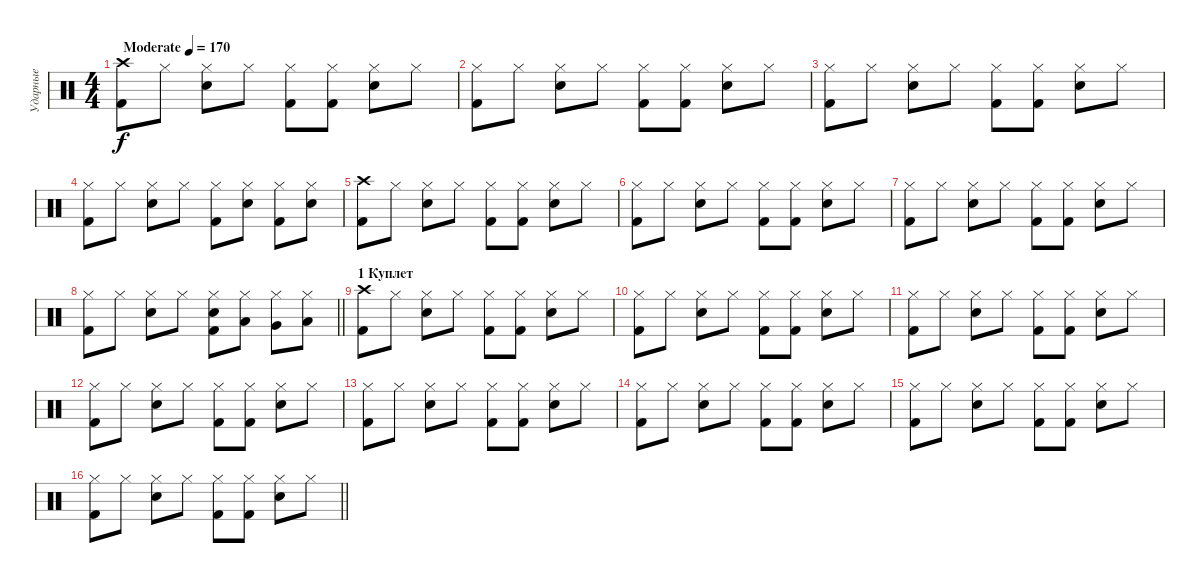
\track ("Ударные" "Ударные") {instrument percussion}
\staff {score}
\articulation defaults
\ts (4 4)
\tempo (170 "Moderate")
\clef neutral
\ks c
("Crash high (hit)" "Kick (hit) 2").8{dy f} "Hi-Hat (closed)".8 ("Hi-Hat (closed)" "Snare (hit) 2").8 "Hi-Hat (closed)".8 ("Hi-Hat (closed)" "Kick (hit) 2").8 ("Hi-Hat (closed)" "Kick (hit) 2").8 ("Hi-Hat (closed)" "Snare (hit) 2").8 "Hi-Hat (closed)".8 |
("Hi-Hat (closed)" "Kick (hit) 2").8 "Hi-Hat (closed)".8 ("Hi-Hat (closed)" "Snare (hit) 2").8 "Hi-Hat (closed)".8 ("Hi-Hat (closed)" "Kick (hit) 2").8 ("Hi-Hat (closed)" "Kick (hit) 2").8 ("Hi-Hat (closed)" "Snare (hit) 2").8 "Hi-Hat (closed)".8 |
("Hi-Hat (closed)" "Kick (hit) 2").8 "Hi-Hat (closed)".8 ("Hi-Hat (closed)" "Snare (hit) 2").8 "Hi-Hat (closed)".8 ("Hi-Hat (closed)" "Kick (hit) 2").8 ("Hi-Hat (closed)" "Kick (hit) 2").8 ("Hi-Hat (closed)" "Snare (hit) 2").8 "Hi-Hat (closed)".8 |
("Hi-Hat (closed)" "Kick (hit) 2").8 "Hi-Hat (closed)".8 ("Hi-Hat (closed)" "Snare (hit) 2").8 "Hi-Hat (closed)".8 ("Hi-Hat (closed)" "Kick (hit) 2").8 ("Hi-Hat (closed)" "Snare (hit) 2").8 ("Hi-Hat (closed)" "Kick (hit) 2").8 ("Hi-Hat (closed)" "Snare (hit) 2").8 |
("Crash high (hit)" "Kick (hit) 2").8 "Hi-Hat (closed)".8 ("Hi-Hat (closed)" "Snare (hit) 2").8 "Hi-Hat (closed)".8 ("Hi-Hat (closed)" "Kick (hit) 2").8 ("Hi-Hat (closed)" "Kick (hit) 2").8 ("Hi-Hat (closed)" "Snare (hit) 2").8 "Hi-Hat (closed)".8 |
("Hi-Hat (closed)" "Kick (hit) 2").8 "Hi-Hat (closed)".8 ("Hi-Hat (closed)" "Snare (hit) 2").8 "Hi-Hat (closed)".8 ("Hi-Hat (closed)" "Kick (hit) 2").8 ("Hi-Hat (closed)" "Kick (hit) 2").8 ("Hi-Hat (closed)" "Snare (hit) 2").8 "Hi-Hat (closed)".8 |
("Hi-Hat (closed)" "Kick (hit) 2").8 "Hi-Hat (closed)".8 ("Hi-Hat (closed)" "Snare (hit) 2").8 "Hi-Hat (closed)".8 ("Hi-Hat (closed)" "Kick (hit) 2").8 ("Hi-Hat (closed)" "Kick (hit) 2").8 ("Hi-Hat (closed)" "Snare (hit) 2").8 "Hi-Hat (closed)".8 |
\barLineRight lightlight
("Hi-Hat (closed)" "Kick (hit) 2").8 "Hi-Hat (closed)".8 ("Hi-Hat (closed)" "Snare (hit) 2").8 "Hi-Hat (closed)".8 ("Hi-Hat (closed)" "Snare (hit) 2" "Kick (hit) 2").8 ("Hi-Hat (closed)" "Low Tom (hit)").8 ("Hi-Hat (closed)" "Very Low Tom (hit)").8 ("Hi-Hat (closed)" "Low Floor Tom (hit)").8 |
\section ("" "1 Куплет")
("Crash high (hit)" "Kick (hit) 2").8 "Hi-Hat (closed)".8 ("Hi-Hat (closed)" "Snare (hit) 2").8 "Hi-Hat (closed)".8 ("Hi-Hat (closed)" "Kick (hit) 2").8 ("Hi-Hat (closed)" "Kick (hit) 2").8 ("Hi-Hat (closed)" "Snare (hit) 2").8 "Hi-Hat (closed)".8 |
("Hi-Hat (closed)" "Kick (hit) 2").8 "Hi-Hat (closed)".8 ("Hi-Hat (closed)" "Snare (hit) 2").8 "Hi-Hat (closed)".8 ("Hi-Hat (closed)" "Kick (hit) 2").8 ("Hi-Hat (closed)" "Kick (hit) 2").8 ("Hi-Hat (closed)" "Snare (hit) 2").8 "Hi-Hat (closed)".8 |
("Hi-Hat (closed)" "Kick (hit) 2").8 "Hi-Hat (closed)".8 ("Hi-Hat (closed)" "Snare (hit) 2").8 "Hi-Hat (closed)".8 ("Hi-Hat (closed)" "Kick (hit) 2").8 ("Hi-Hat (closed)" "Kick (hit) 2").8 ("Hi-Hat (closed)" "Snare (hit) 2").8 "Hi-Hat (closed)".8 |
("Hi-Hat (closed)" "Kick (hit) 2").8 "Hi-Hat (closed)".8 ("Hi-Hat (closed)" "Snare (hit) 2").8 "Hi-Hat (closed)".8 ("Hi-Hat (closed)" "Kick (hit) 2").8 ("Hi-Hat (closed)" "Kick (hit) 2").8 ("Hi-Hat (closed)" "Snare (hit) 2").8 "Hi-Hat (closed)".8 |
("Hi-Hat (closed)" "Kick (hit) 2").8 "Hi-Hat (closed)".8 ("Hi-Hat (closed)" "Snare (hit) 2").8 "Hi-Hat (closed)".8 ("Hi-Hat (closed)" "Kick (hit) 2").8 ("Hi-Hat (closed)" "Kick (hit) 2").8 ("Hi-Hat (closed)" "Snare (hit) 2").8 "Hi-Hat (closed)".8 |
("Hi-Hat (closed)" "Kick (hit) 2").8 "Hi-Hat (closed)".8 ("Hi-Hat (closed)" "Snare (hit) 2").8 "Hi-Hat (closed)".8 ("Hi-Hat (closed)" "Kick (hit) 2").8 ("Hi-Hat (closed)" "Kick (hit) 2").8 ("Hi-Hat (closed)" "Snare (hit) 2").8 "Hi-Hat (closed)".8 |
("Hi-Hat (closed)" "Kick (hit) 2").8 "Hi-Hat (closed)".8 ("Hi-Hat (closed)" "Snare (hit) 2").8 "Hi-Hat (closed)".8 ("Hi-Hat (closed)" "Kick (hit) 2").8 ("Hi-Hat (closed)" "Kick (hit) 2").8 ("Hi-Hat (closed)" "Snare (hit) 2").8 "Hi-Hat (closed)".8 |
\barLineRight lightlight
("Hi-Hat (closed)" "Kick (hit) 2").8 "Hi-Hat (closed)".8 ("Hi-Hat (closed)" "Snare (hit) 2").8 "Hi-Hat (closed)".8 ("Hi-Hat (closed)" "Kick (hit) 2").8 ("Hi-Hat (closed)" "Kick (hit) 2").8 ("Hi-Hat (closed)" "Snare (hit) 2").8 "Hi-Hat (closed)".8
